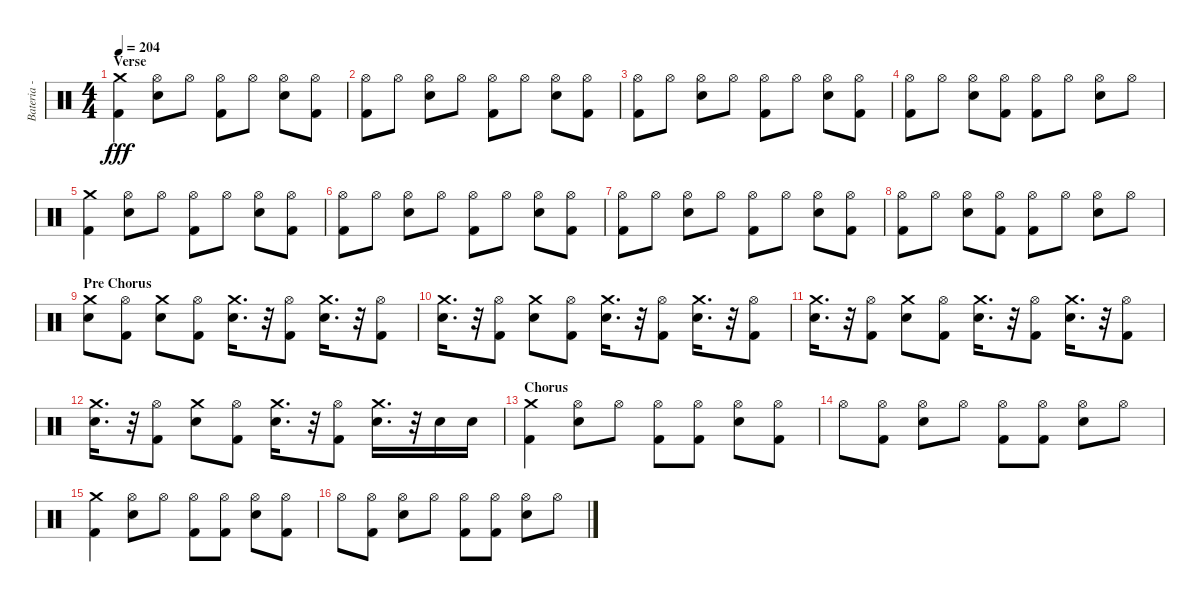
\track ("Bateria - Larzon" "Bateria - ") {instrument percussion}
\staff {score}
\articulation defaults
\ts (4 4)
\section ("" "Verse")
\tempo 204
\clef neutral
\ks c
("Crash medium (hit)" "Kick (hit) 2").4{dy fff} ("Hi-Hat (open)" "Electric Snare (hit)").8 "Hi-Hat (open)".8 ("Kick (hit) 2" "Hi-Hat (open)").8 "Hi-Hat (open)".8 ("Electric Snare (hit)" "Hi-Hat (open)").8 ("Kick (hit) 2" "Hi-Hat (open)").8 |
("Kick (hit) 2" "Hi-Hat (open)").8 "Hi-Hat (open)".8 ("Electric Snare (hit)" "Hi-Hat (open)").8 "Hi-Hat (open)".8 ("Kick (hit) 2" "Hi-Hat (open)").8 "Hi-Hat (open)".8 ("Electric Snare (hit)" "Hi-Hat (open)").8 ("Hi-Hat (open)" "Kick (hit) 2").8 |
("Kick (hit) 2" "Hi-Hat (open)").8 "Hi-Hat (open)".8 ("Electric Snare (hit)" "Hi-Hat (open)").8 "Hi-Hat (open)".8 ("Kick (hit) 2" "Hi-Hat (open)").8 "Hi-Hat (open)".8 ("Electric Snare (hit)" "Hi-Hat (open)").8 ("Kick (hit) 2" "Hi-Hat (open)").8 |
("Kick (hit) 2" "Hi-Hat (open)").8 "Hi-Hat (open)".8 ("Electric Snare (hit)" "Hi-Hat (open)").8 ("Kick (hit) 2" "Hi-Hat (open)").8 ("Kick (hit) 2" "Hi-Hat (open)").8 "Hi-Hat (open)".8 ("Electric Snare (hit)" "Hi-Hat (open)").8 "Hi-Hat (open)".8 |
("Crash medium (hit)" "Kick (hit) 2").4 ("Hi-Hat (open)" "Electric Snare (hit)").8 "Hi-Hat (open)".8 ("Kick (hit) 2" "Hi-Hat (open)").8 "Hi-Hat (open)".8 ("Electric Snare (hit)" "Hi-Hat (open)").8 ("Kick (hit) 2" "Hi-Hat (open)").8 |
("Kick (hit) 2" "Hi-Hat (open)").8 "Hi-Hat (open)".8 ("Electric Snare (hit)" "Hi-Hat (open)").8 "Hi-Hat (open)".8 ("Kick (hit) 2" "Hi-Hat (open)").8 "Hi-Hat (open)".8 ("Electric Snare (hit)" "Hi-Hat (open)").8 ("Hi-Hat (open)" "Kick (hit) 2").8 |
("Kick (hit) 2" "Hi-Hat (open)").8 "Hi-Hat (open)".8 ("Electric Snare (hit)" "Hi-Hat (open)").8 "Hi-Hat (open)".8 ("Kick (hit) 2" "Hi-Hat (open)").8 "Hi-Hat (open)".8 ("Electric Snare (hit)" "Hi-Hat (open)").8 ("Kick (hit) 2" "Hi-Hat (open)").8 |
("Kick (hit) 2" "Hi-Hat (open)").8 "Hi-Hat (open)".8 ("Electric Snare (hit)" "Hi-Hat (open)").8 ("Kick (hit) 2" "Hi-Hat (open)").8 ("Kick (hit) 2" "Hi-Hat (open)").8 "Hi-Hat (open)".8 ("Electric Snare (hit)" "Hi-Hat (open)").8 "Hi-Hat (open)".8 |
\section ("" "Pre Chorus")
("Electric Snare (hit)" "Crash medium (hit)").8 ("Kick (hit) 2" "Hi-Hat (open)").8 ("Electric Snare (hit)" "Crash medium (hit)").8 ("Kick (hit) 2" "Hi-Hat (open)").8 ("Electric Snare (hit)" "Crash medium (hit)").16{d} r.32 ("Kick (hit) 2" "Hi-Hat (open)").8 ("Electric Snare (hit)" "Crash medium (hit)").16{d} r.32 ("Kick (hit) 2" "Hi-Hat (open)").8 |
("Electric Snare (hit)" "Crash medium (hit)").16{d} r.32 ("Kick (hit) 2" "Hi-Hat (open)").8 ("Electric Snare (hit)" "Crash medium (hit)").8 ("Kick (hit) 2" "Hi-Hat (open)").8 ("Electric Snare (hit)" "Crash medium (hit)").16{d} r.32 ("Kick (hit) 2" "Hi-Hat (open)").8 ("Electric Snare (hit)" "Crash medium (hit)").16{d} r.32 ("Kick (hit) 2" "Hi-Hat (open)").8 |
("Electric Snare (hit)" "Crash medium (hit)").16{d} r.32 ("Kick (hit) 2" "Hi-Hat (open)").8 ("Electric Snare (hit)" "Crash medium (hit)").8 ("Kick (hit) 2" "Hi-Hat (open)").8 ("Electric Snare (hit)" "Crash medium (hit)").16{d} r.32 ("Kick (hit) 2" "Hi-Hat (open)").8 ("Electric Snare (hit)" "Crash medium (hit)").16{d} r.32 ("Kick (hit) 2" "Hi-Hat (open)").8 |
("Electric Snare (hit)" "Crash medium (hit)").16{d} r.32 ("Kick (hit) 2" "Hi-Hat (open)").8 ("Electric Snare (hit)" "Crash medium (hit)").8 ("Kick (hit) 2" "Hi-Hat (open)").8 ("Electric Snare (hit)" "Crash medium (hit)").16{d} r.32 ("Kick (hit) 2" "Hi-Hat (open)").8 ("Electric Snare (hit)" "Crash medium (hit)").16{d} r.32 "Electric Snare (hit)".16 "Electric Snare (hit)".16 |
\section ("" "Chorus")
("Kick (hit) 2" "Crash medium (hit)").4 ("Hi-Hat (open)" "Electric Snare (hit)").8 "Hi-Hat (open)".8 ("Hi-Hat (open)" "Kick (hit) 2").8 ("Hi-Hat (open)" "Kick (hit) 2").8 ("Hi-Hat (open)" "Electric Snare (hit)").8 ("Hi-Hat (open)" "Kick (hit) 2").8 |
"Hi-Hat (open)".8 ("Hi-Hat (open)" "Kick (hit) 2").8 ("Hi-Hat (open)" "Electric Snare (hit)").8 "Hi-Hat (open)".8 ("Hi-Hat (open)" "Kick (hit) 2").8 ("Hi-Hat (open)" "Kick (hit) 2").8 ("Hi-Hat (open)" "Electric Snare (hit)").8 "Hi-Hat (open)".8 |
("Crash medium (hit)" "Kick (hit) 2").4 ("Hi-Hat (open)" "Electric Snare (hit)").8 "Hi-Hat (open)".8 ("Hi-Hat (open)" "Kick (hit) 2").8 ("Hi-Hat (open)" "Kick (hit) 2").8 ("Hi-Hat (open)" "Electric Snare (hit)").8 ("Hi-Hat (open)" "Kick (hit) 2").8 |
"Hi-Hat (open)".8 ("Hi-Hat (open)" "Kick (hit) 2").8 ("Hi-Hat (open)" "Electric Snare (hit)").8 "Hi-Hat (open)".8 ("Hi-Hat (open)" "Kick (hit) 2").8 ("Hi-Hat (open)" "Kick (hit) 2").8 ("Electric Snare (hit)" "Hi-Hat (open)").8 "Hi-Hat (open)".8
